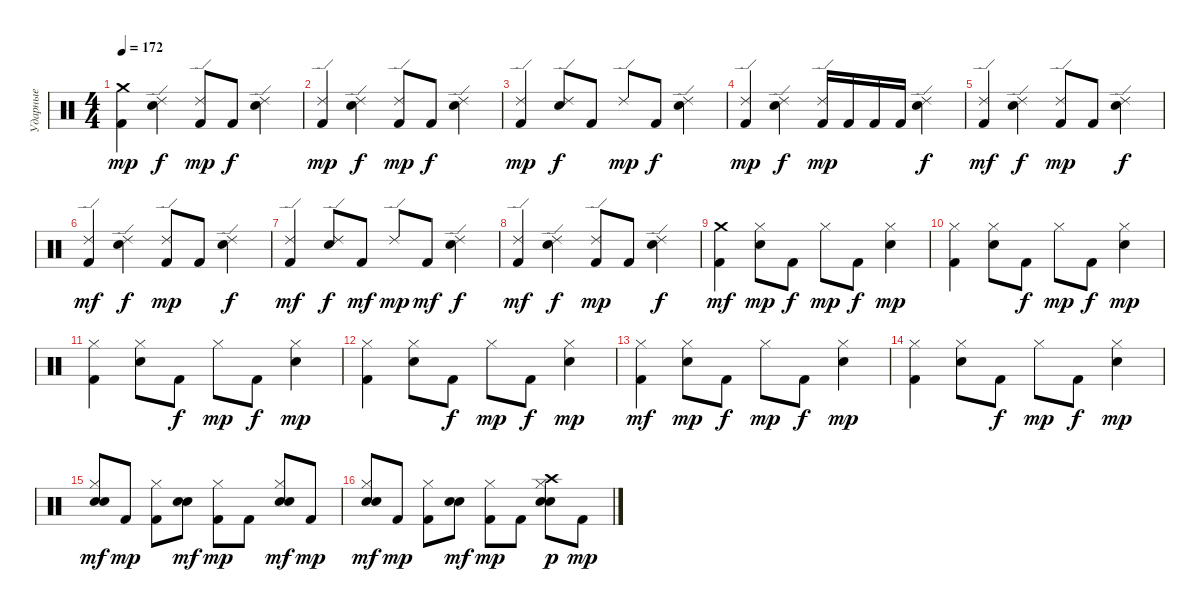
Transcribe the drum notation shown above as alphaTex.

\track ("Ударные" "Ударные") {instrument percussion}
\staff {score}
\articulation defaults
\ts (4 4)
\tempo 172
\clef neutral
\ks c
("Crash medium (hit)" "Kick (hit) 2").4{dy mp} ("Ride (edge) 2" "Electric Snare (hit)").4{dy f} ("Ride (edge) 2" "Kick (hit) 2").8{dy mp} "Kick (hit) 2".8{dy f} ("Ride (edge) 2" "Electric Snare (hit)").4 |
("Ride (edge) 2" "Kick (hit) 2").4{dy mp} ("Ride (edge) 2" "Electric Snare (hit)").4{dy f} ("Ride (edge) 2" "Kick (hit) 2").8{dy mp} "Kick (hit) 2".8{dy f} ("Ride (edge) 2" "Electric Snare (hit)").4 |
("Ride (edge) 2" "Kick (hit) 2").4{dy mp} ("Ride (edge) 2" "Electric Snare (hit)").8{dy f} "Kick (hit) 2".8 "Ride (edge) 2".8{dy mp} "Kick (hit) 2".8{dy f} ("Ride (edge) 2" "Electric Snare (hit)").4 |
("Ride (edge) 2" "Kick (hit) 2").4{dy mp} ("Ride (edge) 2" "Electric Snare (hit)").4{dy f} ("Ride (edge) 2" "Kick (hit) 2").16{dy mp} "Kick (hit) 2".16 "Kick (hit) 2".16 "Kick (hit) 2".16 ("Ride (edge) 2" "Electric Snare (hit)").4{dy f} |
("Ride (edge) 2" "Kick (hit) 2").4{dy mf} ("Ride (edge) 2" "Electric Snare (hit)").4{dy f} ("Ride (edge) 2" "Kick (hit) 2").8{dy mp} "Kick (hit) 2".8 ("Ride (edge) 2" "Electric Snare (hit)").4{dy f} |
("Ride (edge) 2" "Kick (hit) 2").4{dy mf} ("Ride (edge) 2" "Electric Snare (hit)").4{dy f} ("Ride (edge) 2" "Kick (hit) 2").8{dy mp} "Kick (hit) 2".8 ("Ride (edge) 2" "Electric Snare (hit)").4{dy f} |
("Ride (edge) 2" "Kick (hit) 2").4{dy mf} ("Ride (edge) 2" "Electric Snare (hit)").8{dy f} "Kick (hit) 2".8{dy mf} "Ride (edge) 2".8{dy mp} "Kick (hit) 2".8{dy mf} ("Ride (edge) 2" "Electric Snare (hit)").4{dy f} |
("Ride (edge) 2" "Kick (hit) 2").4{dy mf} ("Ride (edge) 2" "Electric Snare (hit)").4{dy f} ("Ride (edge) 2" "Kick (hit) 2").8{dy mp} "Kick (hit) 2".8 ("Ride (edge) 2" "Electric Snare (hit)").4{dy f} |
("Crash medium (hit)" "Kick (hit) 2").4{dy mf} ("Hi-Hat (closed)" "Electric Snare (hit)").8{dy mp} "Kick (hit) 2".8{dy f} "Hi-Hat (closed)".8{dy mp} "Kick (hit) 2".8{dy f} ("Hi-Hat (closed)" "Electric Snare (hit)").4{dy mp} |
("Hi-Hat (closed)" "Kick (hit) 2").4 ("Hi-Hat (closed)" "Electric Snare (hit)").8 "Kick (hit) 2".8{dy f} "Hi-Hat (closed)".8{dy mp} "Kick (hit) 2".8{dy f} ("Hi-Hat (closed)" "Electric Snare (hit)").4{dy mp} |
("Hi-Hat (closed)" "Kick (hit) 2").4 ("Hi-Hat (closed)" "Electric Snare (hit)").8 "Kick (hit) 2".8{dy f} "Hi-Hat (closed)".8{dy mp} "Kick (hit) 2".8{dy f} ("Hi-Hat (closed)" "Electric Snare (hit)").4{dy mp} |
("Hi-Hat (closed)" "Kick (hit) 2").4 ("Hi-Hat (closed)" "Electric Snare (hit)").8 "Kick (hit) 2".8{dy f} "Hi-Hat (closed)".8{dy mp} "Kick (hit) 2".8{dy f} ("Hi-Hat (closed)" "Electric Snare (hit)").4{dy mp} |
("Hi-Hat (closed)" "Kick (hit) 2").4{dy mf} ("Hi-Hat (closed)" "Electric Snare (hit)").8{dy mp} "Kick (hit) 2".8{dy f} "Hi-Hat (closed)".8{dy mp} "Kick (hit) 2".8{dy f} ("Hi-Hat (closed)" "Electric Snare (hit)").4{dy mp} |
("Hi-Hat (closed)" "Kick (hit) 2").4 ("Hi-Hat (closed)" "Electric Snare (hit)").8 "Kick (hit) 2".8{dy f} "Hi-Hat (closed)".8{dy mp} "Kick (hit) 2".8{dy f} ("Hi-Hat (closed)" "Electric Snare (hit)").4{dy mp} |
("Hi-Hat (closed)" "Electric Snare (hit)" "Snare (hit) 2").8{dy mf} "Kick (hit) 2".8{dy mp} ("Hi-Hat (closed)" "Kick (hit) 2").8 ("Electric Snare (hit)" "Snare (hit) 2").8{dy mf} ("Hi-Hat (closed)" "Kick (hit) 2").8{dy mp} "Kick (hit) 2".8 ("Hi-Hat (closed)" "Electric Snare (hit)" "Snare (hit) 2").8{dy mf} "Kick (hit) 2".8{dy mp} |
("Hi-Hat (closed)" "Electric Snare (hit)" "Snare (hit) 2").8{dy mf} "Kick (hit) 2".8{dy mp} ("Hi-Hat (closed)" "Kick (hit) 2").8 ("Electric Snare (hit)" "Snare (hit) 2").8{dy mf} ("Hi-Hat (closed)" "Kick (hit) 2").8{dy mp} "Kick (hit) 2".8 ("Hi-Hat (closed)" "Electric Snare (hit)" "Snare (hit) 2" "Crash high (hit)").8{dy p} "Kick (hit) 2".8{dy mp}
